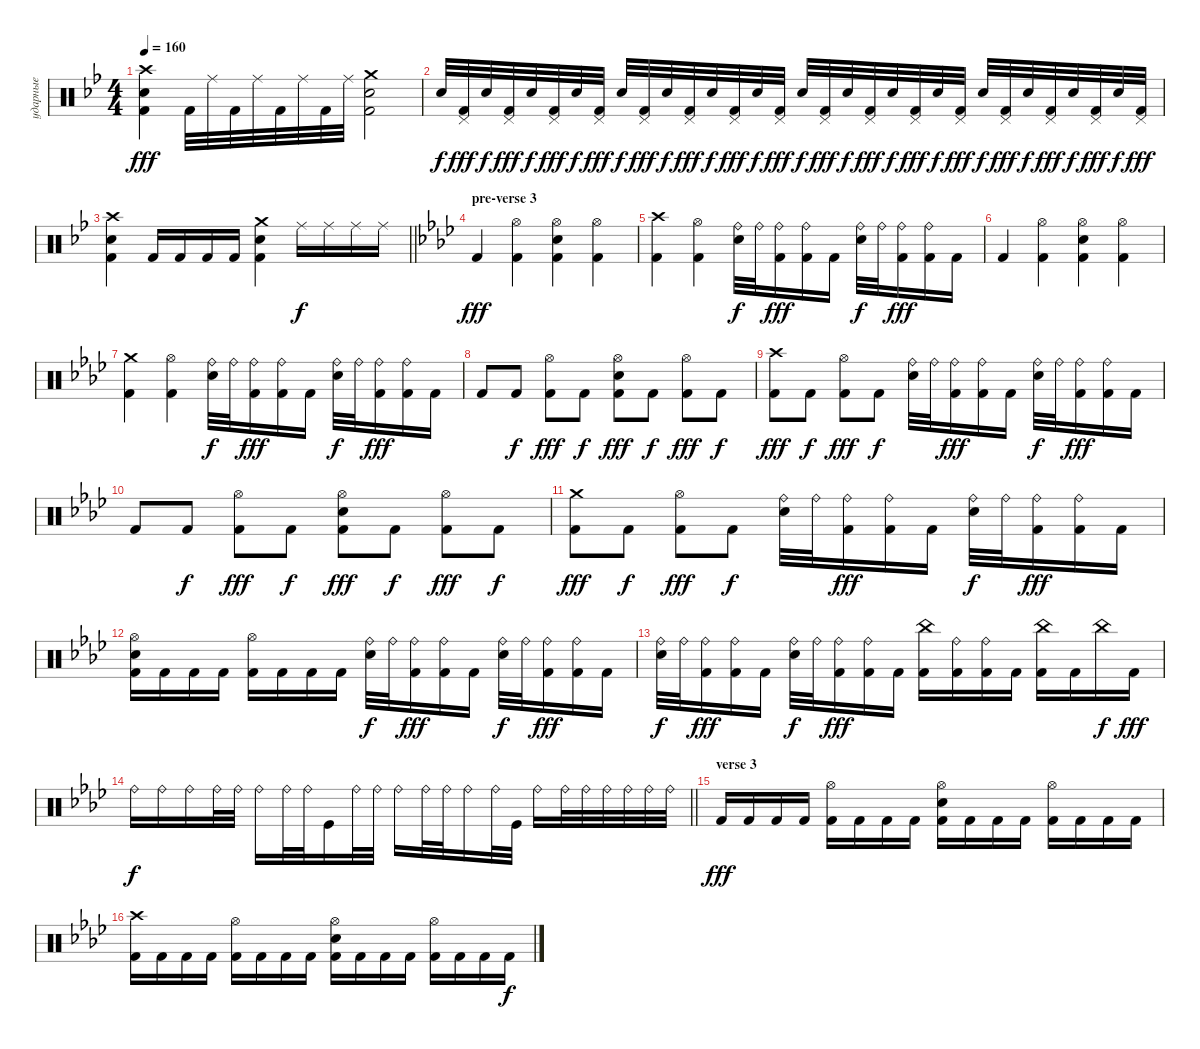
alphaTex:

\track ("ударные" "ударные") {instrument percussion}
\staff {score}
\articulation defaults
\ts (4 4)
\tempo 160
\clef neutral
\ks gminor
("Crash high (hit)" "Electric Snare (hit)" "Kick (hit) 2").4{dy fff} "Kick (hit) 2".32 "Ride (middle)".32 "Kick (hit) 2".32 "Ride (middle)".32 "Kick (hit) 2".32 "Ride (middle)".32 "Kick (hit) 2".32 "Ride (middle)".32 ("Crash medium (hit)" "Electric Snare (hit)" "Kick (hit) 2").2 |
"Electric Snare (hit)".32{dy f} ("Kick (hit) 2" "Pedal Hi-Hat (hit)").32{dy fff} "Electric Snare (hit)".32{dy f} ("Kick (hit) 2" "Pedal Hi-Hat (hit)").32{dy fff} "Electric Snare (hit)".32{dy f} ("Kick (hit) 2" "Pedal Hi-Hat (hit)").32{dy fff} "Electric Snare (hit)".32{dy f} ("Kick (hit) 2" "Pedal Hi-Hat (hit)").32{dy fff} "Electric Snare (hit)".32{dy f} ("Kick (hit) 2" "Pedal Hi-Hat (hit)").32{dy fff} "Electric Snare (hit)".32{dy f} ("Kick (hit) 2" "Pedal Hi-Hat (hit)").32{dy fff} "Electric Snare (hit)".32{dy f} ("Kick (hit) 2" "Pedal Hi-Hat (hit)").32{dy fff} "Electric Snare (hit)".32{dy f} ("Kick (hit) 2" "Pedal Hi-Hat (hit)").32{dy fff} "Electric Snare (hit)".32{dy f} ("Kick (hit) 2" "Pedal Hi-Hat (hit)").32{dy fff} "Electric Snare (hit)".32{dy f} ("Kick (hit) 2" "Pedal Hi-Hat (hit)").32{dy fff} "Electric Snare (hit)".32{dy f} ("Kick (hit) 2" "Pedal Hi-Hat (hit)").32{dy fff} "Electric Snare (hit)".32{dy f} ("Kick (hit) 2" "Pedal Hi-Hat (hit)").32{dy fff} "Electric Snare (hit)".32{dy f} ("Kick (hit) 2" "Pedal Hi-Hat (hit)").32{dy fff} "Electric Snare (hit)".32{dy f} ("Kick (hit) 2" "Pedal Hi-Hat (hit)").32{dy fff} "Electric Snare (hit)".32{dy f} ("Kick (hit) 2" "Pedal Hi-Hat (hit)").32{dy fff} "Electric Snare (hit)".32{dy f} ("Kick (hit) 2" "Pedal Hi-Hat (hit)").32{dy fff} |
\barLineRight lightlight
("Crash high (hit)" "Electric Snare (hit)" "Kick (hit) 2").4 "Kick (hit) 2".16 "Kick (hit) 2".16 "Kick (hit) 2".16 "Kick (hit) 2".16 ("Crash medium (hit)" "Electric Snare (hit)" "Kick (hit) 2").4 "Ride (middle)".16{dy f} "Ride (middle)".16 "Ride (middle)".16 "Ride (middle)".16 |
\section ("" "pre-verse 3")
\ks fminor "Kick (hit) 2".4{dy fff}
("Hi-Hat (open)" "Kick (hit) 2").4 ("Electric Snare (hit)" "Hi-Hat (open)" "Kick (hit) 2").4 ("Hi-Hat (open)" "Kick (hit) 2").4 |
("Crash high (hit)" "Kick (hit) 2").4 ("Hi-Hat (open)" "Kick (hit) 2").4 ("Electric Snare (hit)" "Ride (bell)").32{dy f} "Ride (bell)".32 ("Kick (hit) 2" "Ride (bell)").16{dy fff} ("Kick (hit) 2" "Ride (bell)").16 "Kick (hit) 2".16 ("Electric Snare (hit)" "Ride (bell)").32{dy f} "Ride (bell)".32 ("Kick (hit) 2" "Ride (bell)").16{dy fff} ("Kick (hit) 2" "Ride (bell)").16 "Kick (hit) 2".16 |
"Kick (hit) 2".4 ("Hi-Hat (open)" "Kick (hit) 2").4 ("Electric Snare (hit)" "Hi-Hat (open)" "Kick (hit) 2").4 ("Hi-Hat (open)" "Kick (hit) 2").4 |
("Crash medium (hit)" "Kick (hit) 2").4 ("Hi-Hat (open)" "Kick (hit) 2").4 ("Electric Snare (hit)" "Ride (bell)").32{dy f} "Ride (bell)".32 ("Kick (hit) 2" "Ride (bell)").16{dy fff} ("Kick (hit) 2" "Ride (bell)").16 "Kick (hit) 2".16 ("Electric Snare (hit)" "Ride (bell)").32{dy f} "Ride (bell)".32 ("Kick (hit) 2" "Ride (bell)").16{dy fff} ("Kick (hit) 2" "Ride (bell)").16 "Kick (hit) 2".16 |
"Kick (hit) 2".8 "Kick (hit) 2".8{dy f} ("Hi-Hat (open)" "Kick (hit) 2").8{dy fff} "Kick (hit) 2".8{dy f} ("Electric Snare (hit)" "Hi-Hat (open)" "Kick (hit) 2").8{dy fff} "Kick (hit) 2".8{dy f} ("Hi-Hat (open)" "Kick (hit) 2").8{dy fff} "Kick (hit) 2".8{dy f} |
("Crash high (hit)" "Kick (hit) 2").8{dy fff} "Kick (hit) 2".8{dy f} ("Hi-Hat (open)" "Kick (hit) 2").8{dy fff} "Kick (hit) 2".8{dy f} ("Electric Snare (hit)" "Ride (bell)").32 "Ride (bell)".32 ("Kick (hit) 2" "Ride (bell)").16{dy fff} ("Kick (hit) 2" "Ride (bell)").16 "Kick (hit) 2".16 ("Electric Snare (hit)" "Ride (bell)").32{dy f} "Ride (bell)".32 ("Kick (hit) 2" "Ride (bell)").16{dy fff} ("Kick (hit) 2" "Ride (bell)").16 "Kick (hit) 2".16 |
"Kick (hit) 2".8 "Kick (hit) 2".8{dy f} ("Hi-Hat (open)" "Kick (hit) 2").8{dy fff} "Kick (hit) 2".8{dy f} ("Electric Snare (hit)" "Hi-Hat (open)" "Kick (hit) 2").8{dy fff} "Kick (hit) 2".8{dy f} ("Hi-Hat (open)" "Kick (hit) 2").8{dy fff} "Kick (hit) 2".8{dy f} |
("Crash medium (hit)" "Kick (hit) 2").8{dy fff} "Kick (hit) 2".8{dy f} ("Hi-Hat (open)" "Kick (hit) 2").8{dy fff} "Kick (hit) 2".8{dy f} ("Electric Snare (hit)" "Ride (bell)").32 "Ride (bell)".32 ("Kick (hit) 2" "Ride (bell)").16{dy fff} ("Kick (hit) 2" "Ride (bell)").16 "Kick (hit) 2".16 ("Electric Snare (hit)" "Ride (bell)").32{dy f} "Ride (bell)".32 ("Kick (hit) 2" "Ride (bell)").16{dy fff} ("Kick (hit) 2" "Ride (bell)").16 "Kick (hit) 2".16 |
("Electric Snare (hit)" "Hi-Hat (open)" "Kick (hit) 2").16 "Kick (hit) 2".16 "Kick (hit) 2".16 "Kick (hit) 2".16 ("Hi-Hat (open)" "Kick (hit) 2").16 "Kick (hit) 2".16 "Kick (hit) 2".16 "Kick (hit) 2".16 ("Electric Snare (hit)" "Ride (bell)").32{dy f} "Ride (bell)".32 ("Kick (hit) 2" "Ride (bell)").16{dy fff} ("Kick (hit) 2" "Ride (bell)").16 "Kick (hit) 2".16 ("Electric Snare (hit)" "Ride (bell)").32{dy f} "Ride (bell)".32 ("Kick (hit) 2" "Ride (bell)").16{dy fff} ("Kick (hit) 2" "Ride (bell)").16 "Kick (hit) 2".16 |
("Electric Snare (hit)" "Ride (bell)").32{dy f} "Ride (bell)".32 ("Kick (hit) 2" "Ride (bell)").16{dy fff} ("Kick (hit) 2" "Ride (bell)").16 "Kick (hit) 2".16 ("Electric Snare (hit)" "Ride (bell)").32{dy f} "Ride (bell)".32 ("Kick (hit) 2" "Ride (bell)").16{dy fff} ("Kick (hit) 2" "Ride (bell)").16 "Kick (hit) 2".16 ("China (hit)" "Kick (hit) 2").16 ("Kick (hit) 2" "Ride (bell)").16 ("Kick (hit) 2" "Ride (bell)").16 "Kick (hit) 2".16 ("China (hit)" "Kick (hit) 2").16 "Kick (hit) 2".16 "China (hit)".16{dy f} "Kick (hit) 2".16{dy fff} |
\barLineRight lightlight "Ride (bell)".16{dy f} "Ride (bell)".16 "Ride (bell)".16 "Ride (bell)".32 "Ride (bell)".32 "Ride (bell)".16 "Ride (bell)".32 "Ride (bell)".32 "Kick (hit)".16 "Ride (bell)".32 "Ride (bell)".32 "Ride (bell)".16 "Ride (bell)".32 "Ride (bell)".32 "Ride (bell)".16 "Ride (bell)".32 "Kick (hit)".32 "Ride (bell)".16 "Ride (bell)".32 "Ride (bell)".32 "Ride (bell)".32 "Ride (bell)".32 "Ride (bell)".32 "Ride (bell)".32
|
\section ("" "verse 3")
"Kick (hit) 2".16{dy fff} "Kick (hit) 2".16 "Kick (hit) 2".16 "Kick (hit) 2".16 ("Hi-Hat (open)" "Kick (hit) 2").16 "Kick (hit) 2".16 "Kick (hit) 2".16 "Kick (hit) 2".16 ("Electric Snare (hit)" "Hi-Hat (open)" "Kick (hit) 2").16 "Kick (hit) 2".16 "Kick (hit) 2".16 "Kick (hit) 2".16 ("Hi-Hat (open)" "Kick (hit) 2").16 "Kick (hit) 2".16 "Kick (hit) 2".16 "Kick (hit) 2".16 |
("Crash high (hit)" "Kick (hit) 2").16 "Kick (hit) 2".16 "Kick (hit) 2".16 "Kick (hit) 2".16 ("Hi-Hat (open)" "Kick (hit) 2").16 "Kick (hit) 2".16 "Kick (hit) 2".16 "Kick (hit) 2".16 ("Electric Snare (hit)" "Hi-Hat (open)" "Kick (hit) 2").16 "Kick (hit) 2".16 "Kick (hit) 2".16 "Kick (hit) 2".16 ("Hi-Hat (open)" "Kick (hit) 2").16 "Kick (hit) 2".16 "Kick (hit) 2".16 "Kick (hit) 2".16{dy f}
